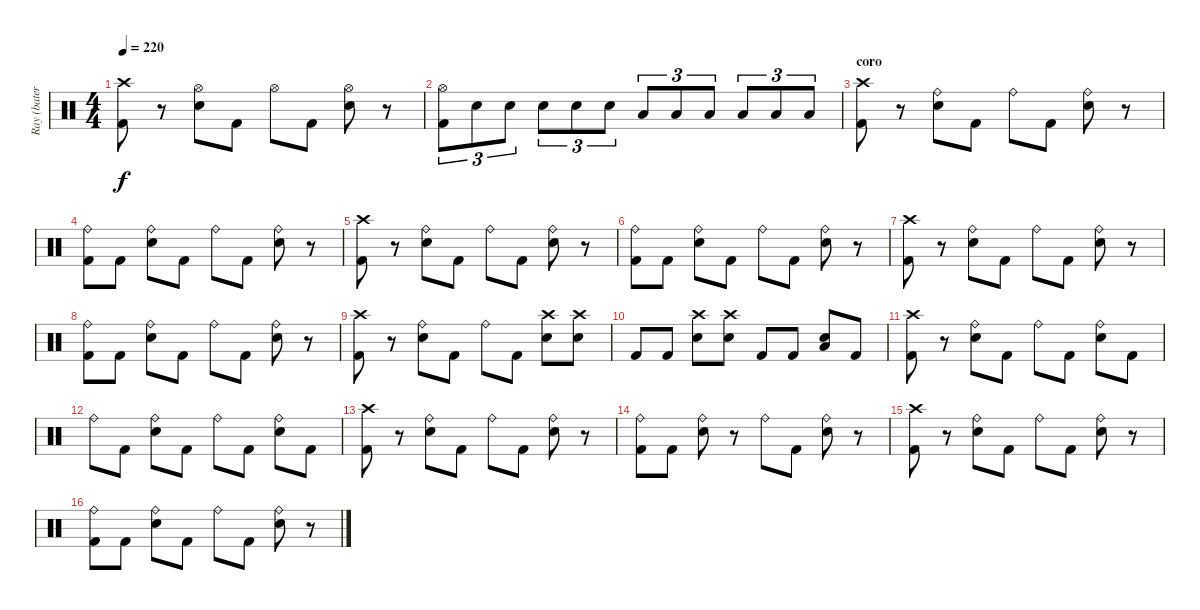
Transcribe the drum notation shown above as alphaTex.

\track ("Ray (batería)" "Ray (bater") {instrument percussion}
\staff {score}
\articulation defaults
\ts (4 4)
\tempo 220
\clef neutral
\ks c
("Crash high (hit)" "Kick (hit) 2").8{dy f} r.8 ("Hi-Hat (open)" "Snare (hit) 2").8 "Kick (hit) 2".8 "Hi-Hat (open)".8 "Kick (hit) 2".8 ("Hi-Hat (open)" "Snare (hit) 2").8 r.8 |
("Hi-Hat (open)" "Kick (hit) 2").8{tu (3 2)} "Snare (hit) 2".8{tu (3 2)} "Snare (hit) 2".8{tu (3 2)} "Snare (hit) 2".8{tu (3 2)} "Snare (hit) 2".8{tu (3 2)} "Snare (hit) 2".8{tu (3 2)} "Low Tom (hit)".8{tu (3 2)} "Low Tom (hit)".8{tu (3 2)} "Low Tom (hit)".8{tu (3 2)} "Low Floor Tom (hit)".8{tu (3 2)} "Low Floor Tom (hit)".8{tu (3 2)} "Low Floor Tom (hit)".8{tu (3 2)} |
\section ("" "coro")
("Crash high (hit)" "Kick (hit) 2").8 r.8 ("Ride (bell)" "Snare (hit) 2").8 "Kick (hit) 2".8 "Ride (bell)".8 "Kick (hit) 2".8 ("Ride (bell)" "Snare (hit) 2").8 r.8 |
("Ride (bell)" "Kick (hit) 2").8 "Kick (hit) 2".8 ("Ride (bell)" "Snare (hit) 2").8 "Kick (hit) 2".8 "Ride (bell)".8 "Kick (hit) 2".8 ("Ride (bell)" "Snare (hit) 2").8 r.8 |
("Crash high (hit)" "Kick (hit) 2").8 r.8 ("Ride (bell)" "Snare (hit) 2").8 "Kick (hit) 2".8 "Ride (bell)".8 "Kick (hit) 2".8 ("Ride (bell)" "Snare (hit) 2").8 r.8 |
("Ride (bell)" "Kick (hit) 2").8 "Kick (hit) 2".8 ("Ride (bell)" "Snare (hit) 2").8 "Kick (hit) 2".8 "Ride (bell)".8 "Kick (hit) 2".8 ("Ride (bell)" "Snare (hit) 2").8 r.8 |
("Crash high (hit)" "Kick (hit) 2").8 r.8 ("Ride (bell)" "Snare (hit) 2").8 "Kick (hit) 2".8 "Ride (bell)".8 "Kick (hit) 2".8 ("Ride (bell)" "Snare (hit) 2").8 r.8 |
("Ride (bell)" "Kick (hit) 2").8 "Kick (hit) 2".8 ("Ride (bell)" "Snare (hit) 2").8 "Kick (hit) 2".8 "Ride (bell)".8 "Kick (hit) 2".8 ("Ride (bell)" "Snare (hit) 2").8 r.8 |
("Crash high (hit)" "Kick (hit) 2").8 r.8 ("Ride (bell)" "Snare (hit) 2").8 "Kick (hit) 2".8 "Ride (bell)".8 "Kick (hit) 2".8 ("Crash high (hit)" "Snare (hit) 2").8 ("Crash high (hit)" "Snare (hit) 2").8 |
"Kick (hit) 2".8 "Kick (hit) 2".8 ("Crash high (hit)" "Snare (hit) 2").8 ("Crash high (hit)" "Snare (hit) 2").8 "Kick (hit) 2".8 "Kick (hit) 2".8 ("Snare (hit) 2" "Low Tom (hit)").8 "Kick (hit) 2".8 |
("Crash high (hit)" "Kick (hit) 2").8 r.8 ("Ride (bell)" "Snare (hit) 2").8 "Kick (hit) 2".8 "Ride (bell)".8 "Kick (hit) 2".8 ("Ride (bell)" "Snare (hit) 2").8 "Kick (hit) 2".8 |
"Ride (bell)".8 "Kick (hit) 2".8 ("Ride (bell)" "Snare (hit) 2").8 "Kick (hit) 2".8 "Ride (bell)".8 "Kick (hit) 2".8 ("Ride (bell)" "Snare (hit) 2").8 "Kick (hit) 2".8 |
("Crash high (hit)" "Kick (hit) 2").8 r.8 ("Ride (bell)" "Snare (hit) 2").8 "Kick (hit) 2".8 "Ride (bell)".8 "Kick (hit) 2".8 ("Ride (bell)" "Snare (hit) 2").8 r.8 |
("Ride (bell)" "Kick (hit) 2").8 "Kick (hit) 2".8 ("Ride (bell)" "Snare (hit) 2").8 r.8 "Ride (bell)".8 "Kick (hit) 2".8 ("Ride (bell)" "Snare (hit) 2").8 r.8 |
("Crash high (hit)" "Kick (hit) 2").8 r.8 ("Ride (bell)" "Snare (hit) 2").8 "Kick (hit) 2".8 "Ride (bell)".8 "Kick (hit) 2".8 ("Ride (bell)" "Snare (hit) 2").8 r.8 |
("Ride (bell)" "Kick (hit) 2").8 "Kick (hit) 2".8 ("Ride (bell)" "Snare (hit) 2").8 "Kick (hit) 2".8 "Ride (bell)".8 "Kick (hit) 2".8 ("Ride (bell)" "Snare (hit) 2").8 r.8
